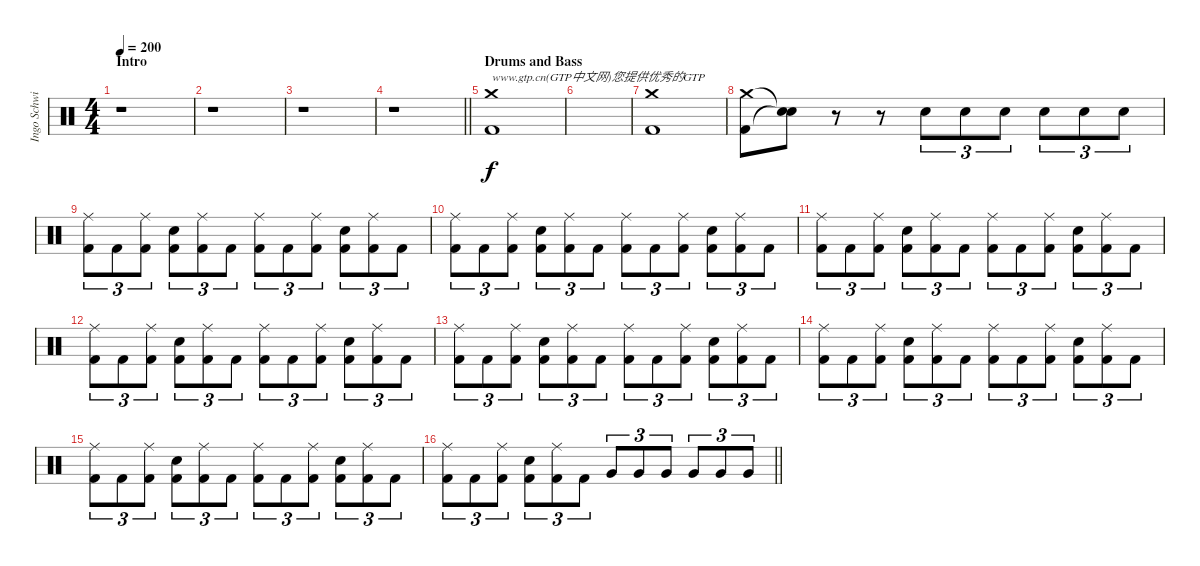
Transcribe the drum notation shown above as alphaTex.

\track ("Ingo Schwichtenberg" "Ingo Schwi") {instrument percussion}
\staff {score}
\articulation defaults
\ts (4 4)
\section ("" "Intro")
\tempo 200
\clef neutral
\ks c
r.1{dy f} |
r.1 |
r.1 |
\barLineRight lightlight
r.1 |
\section ("" "Drums and Bass")
("Crash medium (hit)" "Kick (hit) 2").1{txt "www.gtp.cn(GTP中文网)您提供优秀的GTP"} |
|
("Crash medium (hit)" "Kick (hit) 2").1 |
("Crash medium (hit)" "Kick (hit) 2").8 ("Snare (hit)"{t} "Snare (hit)"{t}).8 r.8 r.8 "Snare (hit) 2".8{tu (3 2)} "Snare (hit) 2".8{tu (3 2)} "Snare (hit) 2".8{tu (3 2)} "Snare (hit) 2".8{tu (3 2)} "Snare (hit) 2".8{tu (3 2)} "Snare (hit) 2".8{tu (3 2)} |
("Ride (middle)" "Kick (hit) 2").8{tu (3 2)} "Kick (hit) 2".8{tu (3 2)} ("Ride (middle)" "Kick (hit) 2").8{tu (3 2)} ("Snare (hit) 2" "Kick (hit) 2").8{tu (3 2)} ("Ride (middle)" "Kick (hit) 2").8{tu (3 2)} "Kick (hit) 2".8{tu (3 2)} ("Ride (middle)" "Kick (hit) 2").8{tu (3 2)} "Kick (hit) 2".8{tu (3 2)} ("Ride (middle)" "Kick (hit) 2").8{tu (3 2)} ("Snare (hit) 2" "Kick (hit) 2").8{tu (3 2)} ("Ride (middle)" "Kick (hit) 2").8{tu (3 2)} "Kick (hit) 2".8{tu (3 2)} |
("Ride (middle)" "Kick (hit) 2").8{tu (3 2)} "Kick (hit) 2".8{tu (3 2)} ("Ride (middle)" "Kick (hit) 2").8{tu (3 2)} ("Snare (hit) 2" "Kick (hit) 2").8{tu (3 2)} ("Ride (middle)" "Kick (hit) 2").8{tu (3 2)} "Kick (hit) 2".8{tu (3 2)} ("Ride (middle)" "Kick (hit) 2").8{tu (3 2)} "Kick (hit) 2".8{tu (3 2)} ("Ride (middle)" "Kick (hit) 2").8{tu (3 2)} ("Snare (hit) 2" "Kick (hit) 2").8{tu (3 2)} ("Ride (middle)" "Kick (hit) 2").8{tu (3 2)} "Kick (hit) 2".8{tu (3 2)} |
("Ride (middle)" "Kick (hit) 2").8{tu (3 2)} "Kick (hit) 2".8{tu (3 2)} ("Ride (middle)" "Kick (hit) 2").8{tu (3 2)} ("Snare (hit) 2" "Kick (hit) 2").8{tu (3 2)} ("Ride (middle)" "Kick (hit) 2").8{tu (3 2)} "Kick (hit) 2".8{tu (3 2)} ("Ride (middle)" "Kick (hit) 2").8{tu (3 2)} "Kick (hit) 2".8{tu (3 2)} ("Ride (middle)" "Kick (hit) 2").8{tu (3 2)} ("Snare (hit) 2" "Kick (hit) 2").8{tu (3 2)} ("Ride (middle)" "Kick (hit) 2").8{tu (3 2)} "Kick (hit) 2".8{tu (3 2)} |
("Ride (middle)" "Kick (hit) 2").8{tu (3 2)} "Kick (hit) 2".8{tu (3 2)} ("Ride (middle)" "Kick (hit) 2").8{tu (3 2)} ("Snare (hit) 2" "Kick (hit) 2").8{tu (3 2)} ("Ride (middle)" "Kick (hit) 2").8{tu (3 2)} "Kick (hit) 2".8{tu (3 2)} ("Ride (middle)" "Kick (hit) 2").8{tu (3 2)} "Kick (hit) 2".8{tu (3 2)} ("Ride (middle)" "Kick (hit) 2").8{tu (3 2)} ("Snare (hit) 2" "Kick (hit) 2").8{tu (3 2)} ("Ride (middle)" "Kick (hit) 2").8{tu (3 2)} "Kick (hit) 2".8{tu (3 2)} |
("Ride (middle)" "Kick (hit) 2").8{tu (3 2)} "Kick (hit) 2".8{tu (3 2)} ("Ride (middle)" "Kick (hit) 2").8{tu (3 2)} ("Snare (hit) 2" "Kick (hit) 2").8{tu (3 2)} ("Ride (middle)" "Kick (hit) 2").8{tu (3 2)} "Kick (hit) 2".8{tu (3 2)} ("Ride (middle)" "Kick (hit) 2").8{tu (3 2)} "Kick (hit) 2".8{tu (3 2)} ("Ride (middle)" "Kick (hit) 2").8{tu (3 2)} ("Snare (hit) 2" "Kick (hit) 2").8{tu (3 2)} ("Ride (middle)" "Kick (hit) 2").8{tu (3 2)} "Kick (hit) 2".8{tu (3 2)} |
("Ride (middle)" "Kick (hit) 2").8{tu (3 2)} "Kick (hit) 2".8{tu (3 2)} ("Ride (middle)" "Kick (hit) 2").8{tu (3 2)} ("Snare (hit) 2" "Kick (hit) 2").8{tu (3 2)} ("Ride (middle)" "Kick (hit) 2").8{tu (3 2)} "Kick (hit) 2".8{tu (3 2)} ("Ride (middle)" "Kick (hit) 2").8{tu (3 2)} "Kick (hit) 2".8{tu (3 2)} ("Ride (middle)" "Kick (hit) 2").8{tu (3 2)} ("Snare (hit) 2" "Kick (hit) 2").8{tu (3 2)} ("Ride (middle)" "Kick (hit) 2").8{tu (3 2)} "Kick (hit) 2".8{tu (3 2)} |
("Ride (middle)" "Kick (hit) 2").8{tu (3 2)} "Kick (hit) 2".8{tu (3 2)} ("Ride (middle)" "Kick (hit) 2").8{tu (3 2)} ("Snare (hit) 2" "Kick (hit) 2").8{tu (3 2)} ("Ride (middle)" "Kick (hit) 2").8{tu (3 2)} "Kick (hit) 2".8{tu (3 2)} ("Ride (middle)" "Kick (hit) 2").8{tu (3 2)} "Kick (hit) 2".8{tu (3 2)} ("Ride (middle)" "Kick (hit) 2").8{tu (3 2)} ("Snare (hit) 2" "Kick (hit) 2").8{tu (3 2)} ("Ride (middle)" "Kick (hit) 2").8{tu (3 2)} "Kick (hit) 2".8{tu (3 2)} |
\barLineRight lightlight
("Ride (middle)" "Kick (hit) 2").8{tu (3 2)} "Kick (hit) 2".8{tu (3 2)} ("Ride (middle)" "Kick (hit) 2").8{tu (3 2)} ("Snare (hit) 2" "Kick (hit) 2").8{tu (3 2)} ("Ride (middle)" "Kick (hit) 2").8{tu (3 2)} "Kick (hit) 2".8{tu (3 2)} "Very Low Tom (hit)".8{tu (3 2)} "Very Low Tom (hit)".8{tu (3 2)} "Very Low Tom (hit)".8{tu (3 2)} "Very Low Tom (hit)".8{tu (3 2)} "Very Low Tom (hit)".8{tu (3 2)} "Very Low Tom (hit)".8{tu (3 2)}
